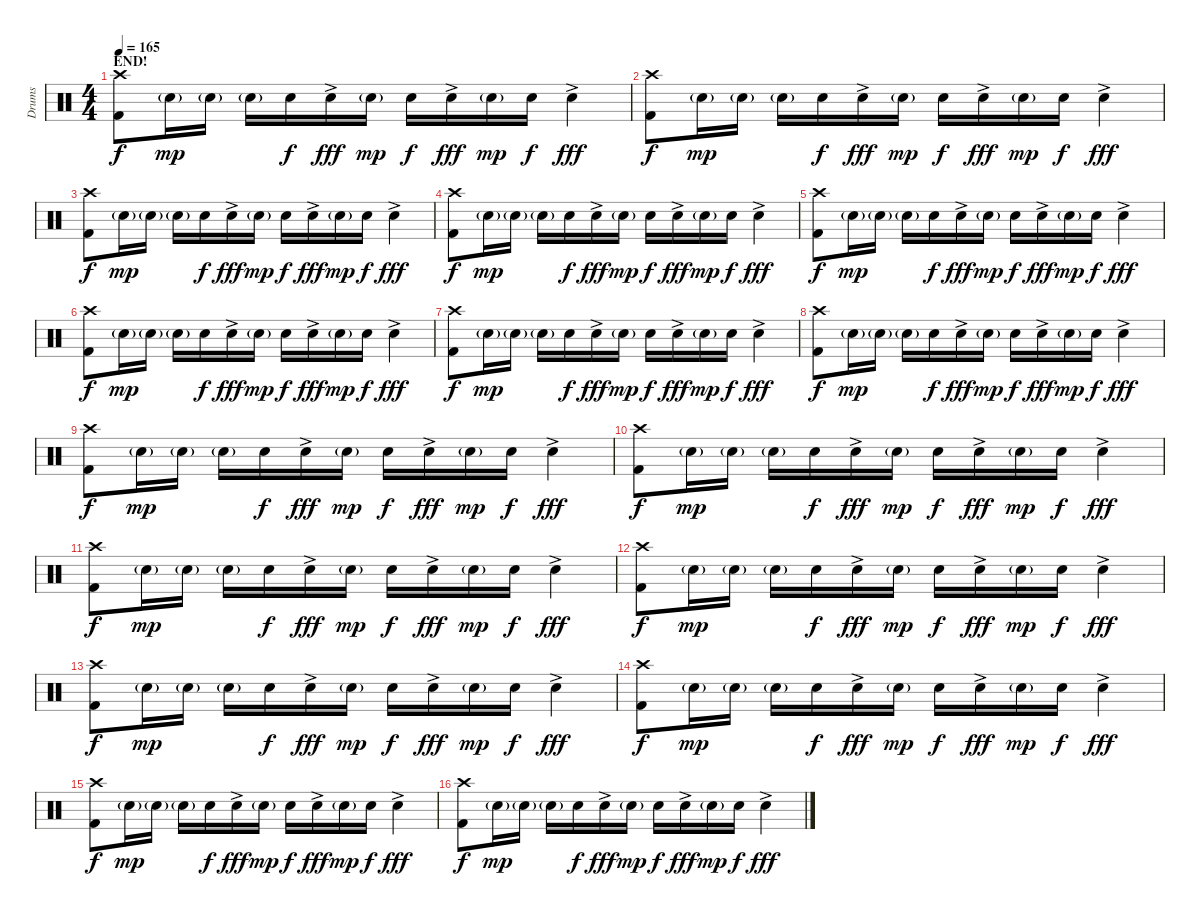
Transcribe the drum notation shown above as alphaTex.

\track ("Drums" "Drums") {instrument percussion}
\staff {score}
\articulation defaults
\ts (4 4)
\section ("" "END!")
\tempo 165
\clef neutral
\ks c
("Crash high (hit)" "Kick (hit) 2").8{dy f} "Snare (hit) 2"{g}.16{dy mp} "Snare (hit) 2"{g}.16 "Snare (hit) 2"{g}.16 "Snare (hit) 2".16{dy f} "Snare (hit) 2"{ac}.16{dy fff} "Snare (hit) 2"{g}.16{dy mp} "Snare (hit) 2".16{dy f} "Snare (hit) 2"{ac}.16{dy fff} "Snare (hit) 2"{g}.16{dy mp} "Snare (hit) 2".16{dy f} "Snare (hit) 2"{ac}.4{dy fff} |
("Crash high (hit)" "Kick (hit) 2").8{dy f} "Snare (hit) 2"{g}.16{dy mp} "Snare (hit) 2"{g}.16 "Snare (hit) 2"{g}.16 "Snare (hit) 2".16{dy f} "Snare (hit) 2"{ac}.16{dy fff} "Snare (hit) 2"{g}.16{dy mp} "Snare (hit) 2".16{dy f} "Snare (hit) 2"{ac}.16{dy fff} "Snare (hit) 2"{g}.16{dy mp} "Snare (hit) 2".16{dy f} "Snare (hit) 2"{ac}.4{dy fff} |
("Crash high (hit)" "Kick (hit) 2").8{dy f} "Snare (hit) 2"{g}.16{dy mp} "Snare (hit) 2"{g}.16 "Snare (hit) 2"{g}.16 "Snare (hit) 2".16{dy f} "Snare (hit) 2"{ac}.16{dy fff} "Snare (hit) 2"{g}.16{dy mp} "Snare (hit) 2".16{dy f} "Snare (hit) 2"{ac}.16{dy fff} "Snare (hit) 2"{g}.16{dy mp} "Snare (hit) 2".16{dy f} "Snare (hit) 2"{ac}.4{dy fff} |
("Crash high (hit)" "Kick (hit) 2").8{dy f} "Snare (hit) 2"{g}.16{dy mp} "Snare (hit) 2"{g}.16 "Snare (hit) 2"{g}.16 "Snare (hit) 2".16{dy f} "Snare (hit) 2"{ac}.16{dy fff} "Snare (hit) 2"{g}.16{dy mp} "Snare (hit) 2".16{dy f} "Snare (hit) 2"{ac}.16{dy fff} "Snare (hit) 2"{g}.16{dy mp} "Snare (hit) 2".16{dy f} "Snare (hit) 2"{ac}.4{dy fff} |
("Crash high (hit)" "Kick (hit) 2").8{dy f} "Snare (hit) 2"{g}.16{dy mp} "Snare (hit) 2"{g}.16 "Snare (hit) 2"{g}.16 "Snare (hit) 2".16{dy f} "Snare (hit) 2"{ac}.16{dy fff} "Snare (hit) 2"{g}.16{dy mp} "Snare (hit) 2".16{dy f} "Snare (hit) 2"{ac}.16{dy fff} "Snare (hit) 2"{g}.16{dy mp} "Snare (hit) 2".16{dy f} "Snare (hit) 2"{ac}.4{dy fff} |
("Crash high (hit)" "Kick (hit) 2").8{dy f} "Snare (hit) 2"{g}.16{dy mp} "Snare (hit) 2"{g}.16 "Snare (hit) 2"{g}.16 "Snare (hit) 2".16{dy f} "Snare (hit) 2"{ac}.16{dy fff} "Snare (hit) 2"{g}.16{dy mp} "Snare (hit) 2".16{dy f} "Snare (hit) 2"{ac}.16{dy fff} "Snare (hit) 2"{g}.16{dy mp} "Snare (hit) 2".16{dy f} "Snare (hit) 2"{ac}.4{dy fff} |
("Crash high (hit)" "Kick (hit) 2").8{dy f} "Snare (hit) 2"{g}.16{dy mp} "Snare (hit) 2"{g}.16 "Snare (hit) 2"{g}.16 "Snare (hit) 2".16{dy f} "Snare (hit) 2"{ac}.16{dy fff} "Snare (hit) 2"{g}.16{dy mp} "Snare (hit) 2".16{dy f} "Snare (hit) 2"{ac}.16{dy fff} "Snare (hit) 2"{g}.16{dy mp} "Snare (hit) 2".16{dy f} "Snare (hit) 2"{ac}.4{dy fff} |
("Crash high (hit)" "Kick (hit) 2").8{dy f} "Snare (hit) 2"{g}.16{dy mp} "Snare (hit) 2"{g}.16 "Snare (hit) 2"{g}.16 "Snare (hit) 2".16{dy f} "Snare (hit) 2"{ac}.16{dy fff} "Snare (hit) 2"{g}.16{dy mp} "Snare (hit) 2".16{dy f} "Snare (hit) 2"{ac}.16{dy fff} "Snare (hit) 2"{g}.16{dy mp} "Snare (hit) 2".16{dy f} "Snare (hit) 2"{ac}.4{dy fff} |
("Crash high (hit)" "Kick (hit) 2").8{dy f} "Snare (hit) 2"{g}.16{dy mp} "Snare (hit) 2"{g}.16 "Snare (hit) 2"{g}.16 "Snare (hit) 2".16{dy f} "Snare (hit) 2"{ac}.16{dy fff} "Snare (hit) 2"{g}.16{dy mp} "Snare (hit) 2".16{dy f} "Snare (hit) 2"{ac}.16{dy fff} "Snare (hit) 2"{g}.16{dy mp} "Snare (hit) 2".16{dy f} "Snare (hit) 2"{ac}.4{dy fff} |
("Crash high (hit)" "Kick (hit) 2").8{dy f} "Snare (hit) 2"{g}.16{dy mp} "Snare (hit) 2"{g}.16 "Snare (hit) 2"{g}.16 "Snare (hit) 2".16{dy f} "Snare (hit) 2"{ac}.16{dy fff} "Snare (hit) 2"{g}.16{dy mp} "Snare (hit) 2".16{dy f} "Snare (hit) 2"{ac}.16{dy fff} "Snare (hit) 2"{g}.16{dy mp} "Snare (hit) 2".16{dy f} "Snare (hit) 2"{ac}.4{dy fff} |
("Crash high (hit)" "Kick (hit) 2").8{dy f} "Snare (hit) 2"{g}.16{dy mp} "Snare (hit) 2"{g}.16 "Snare (hit) 2"{g}.16 "Snare (hit) 2".16{dy f} "Snare (hit) 2"{ac}.16{dy fff} "Snare (hit) 2"{g}.16{dy mp} "Snare (hit) 2".16{dy f} "Snare (hit) 2"{ac}.16{dy fff} "Snare (hit) 2"{g}.16{dy mp} "Snare (hit) 2".16{dy f} "Snare (hit) 2"{ac}.4{dy fff} |
("Crash high (hit)" "Kick (hit) 2").8{dy f} "Snare (hit) 2"{g}.16{dy mp} "Snare (hit) 2"{g}.16 "Snare (hit) 2"{g}.16 "Snare (hit) 2".16{dy f} "Snare (hit) 2"{ac}.16{dy fff} "Snare (hit) 2"{g}.16{dy mp} "Snare (hit) 2".16{dy f} "Snare (hit) 2"{ac}.16{dy fff} "Snare (hit) 2"{g}.16{dy mp} "Snare (hit) 2".16{dy f} "Snare (hit) 2"{ac}.4{dy fff} |
("Crash high (hit)" "Kick (hit) 2").8{dy f} "Snare (hit) 2"{g}.16{dy mp} "Snare (hit) 2"{g}.16 "Snare (hit) 2"{g}.16 "Snare (hit) 2".16{dy f} "Snare (hit) 2"{ac}.16{dy fff} "Snare (hit) 2"{g}.16{dy mp} "Snare (hit) 2".16{dy f} "Snare (hit) 2"{ac}.16{dy fff} "Snare (hit) 2"{g}.16{dy mp} "Snare (hit) 2".16{dy f} "Snare (hit) 2"{ac}.4{dy fff} |
("Crash high (hit)" "Kick (hit) 2").8{dy f} "Snare (hit) 2"{g}.16{dy mp} "Snare (hit) 2"{g}.16 "Snare (hit) 2"{g}.16 "Snare (hit) 2".16{dy f} "Snare (hit) 2"{ac}.16{dy fff} "Snare (hit) 2"{g}.16{dy mp} "Snare (hit) 2".16{dy f} "Snare (hit) 2"{ac}.16{dy fff} "Snare (hit) 2"{g}.16{dy mp} "Snare (hit) 2".16{dy f} "Snare (hit) 2"{ac}.4{dy fff} |
("Crash high (hit)" "Kick (hit) 2").8{dy f} "Snare (hit) 2"{g}.16{dy mp} "Snare (hit) 2"{g}.16 "Snare (hit) 2"{g}.16 "Snare (hit) 2".16{dy f} "Snare (hit) 2"{ac}.16{dy fff} "Snare (hit) 2"{g}.16{dy mp} "Snare (hit) 2".16{dy f} "Snare (hit) 2"{ac}.16{dy fff} "Snare (hit) 2"{g}.16{dy mp} "Snare (hit) 2".16{dy f} "Snare (hit) 2"{ac}.4{dy fff} |
("Crash high (hit)" "Kick (hit) 2").8{dy f} "Snare (hit) 2"{g}.16{dy mp} "Snare (hit) 2"{g}.16 "Snare (hit) 2"{g}.16 "Snare (hit) 2".16{dy f} "Snare (hit) 2"{ac}.16{dy fff} "Snare (hit) 2"{g}.16{dy mp} "Snare (hit) 2".16{dy f} "Snare (hit) 2"{ac}.16{dy fff} "Snare (hit) 2"{g}.16{dy mp} "Snare (hit) 2".16{dy f} "Snare (hit) 2"{ac}.4{dy fff}
